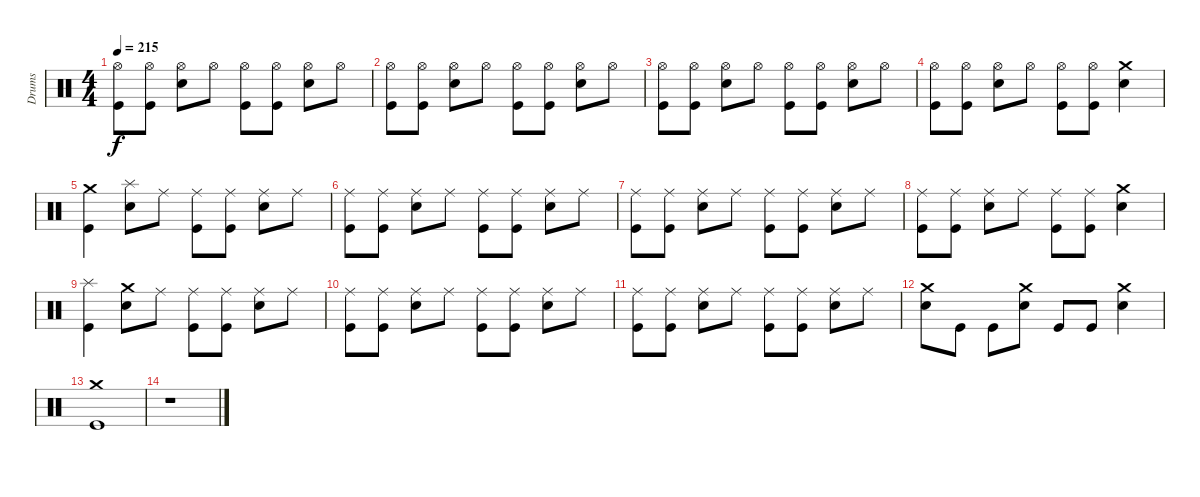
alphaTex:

\track ("Drums" "Drums") {instrument percussion}
\staff {score}
\articulation defaults
\ts (4 4)
\tempo 215
\clef neutral
\ks c
("Kick (hit)" "Hi-Hat (open)").8{dy f} ("Kick (hit)" "Hi-Hat (open)").8 ("Snare (hit) 2" "Hi-Hat (open)").8 "Hi-Hat (open)".8 ("Kick (hit)" "Hi-Hat (open)").8 ("Kick (hit)" "Hi-Hat (open)").8 ("Snare (hit) 2" "Hi-Hat (open)").8 "Hi-Hat (open)".8 |
("Kick (hit)" "Hi-Hat (open)").8 ("Kick (hit)" "Hi-Hat (open)").8 ("Snare (hit) 2" "Hi-Hat (open)").8 "Hi-Hat (open)".8 ("Kick (hit)" "Hi-Hat (open)").8 ("Kick (hit)" "Hi-Hat (open)").8 ("Snare (hit) 2" "Hi-Hat (open)").8 "Hi-Hat (open)".8 |
("Kick (hit)" "Hi-Hat (open)").8 ("Kick (hit)" "Hi-Hat (open)").8 ("Snare (hit) 2" "Hi-Hat (open)").8 "Hi-Hat (open)".8 ("Kick (hit)" "Hi-Hat (open)").8 ("Kick (hit)" "Hi-Hat (open)").8 ("Snare (hit) 2" "Hi-Hat (open)").8 "Hi-Hat (open)".8 |
("Kick (hit)" "Hi-Hat (open)").8 ("Kick (hit)" "Hi-Hat (open)").8 ("Snare (hit) 2" "Hi-Hat (open)").8 "Hi-Hat (open)".8 ("Kick (hit)" "Hi-Hat (open)").8 ("Kick (hit)" "Hi-Hat (open)").8 ("Snare (hit) 2" "Crash medium (hit)").4 |
("Kick (hit)" "Crash medium (hit)").4 ("Snare (hit) 2" "Splash (hit)").8 "Ride (middle)".8 ("Kick (hit)" "Ride (middle)").8 ("Kick (hit)" "Ride (middle)").8 ("Snare (hit) 2" "Ride (middle)").8 "Ride (middle)".8 |
("Kick (hit)" "Ride (middle)").8 ("Kick (hit)" "Ride (middle)").8 ("Snare (hit) 2" "Ride (middle)").8 "Ride (middle)".8 ("Kick (hit)" "Ride (middle)").8 ("Kick (hit)" "Ride (middle)").8 ("Snare (hit) 2" "Ride (middle)").8 "Ride (middle)".8 |
("Kick (hit)" "Ride (middle)").8 ("Kick (hit)" "Ride (middle)").8 ("Snare (hit) 2" "Ride (middle)").8 "Ride (middle)".8 ("Kick (hit)" "Ride (middle)").8 ("Kick (hit)" "Ride (middle)").8 ("Snare (hit) 2" "Ride (middle)").8 "Ride (middle)".8 |
("Kick (hit)" "Ride (middle)").8 ("Kick (hit)" "Ride (middle)").8 ("Snare (hit) 2" "Ride (middle)").8 "Ride (middle)".8 ("Kick (hit)" "Ride (middle)").8 ("Kick (hit)" "Ride (middle)").8 ("Snare (hit) 2" "Crash medium (hit)").4 |
("Kick (hit)" "Splash (hit)").4 ("Snare (hit) 2" "Crash medium (hit)").8 "Ride (middle)".8 ("Kick (hit)" "Ride (middle)").8 ("Kick (hit)" "Ride (middle)").8 ("Snare (hit) 2" "Ride (middle)").8 "Ride (middle)".8 |
("Kick (hit)" "Ride (middle)").8 ("Kick (hit)" "Ride (middle)").8 ("Snare (hit) 2" "Ride (middle)").8 "Ride (middle)".8 ("Kick (hit)" "Ride (middle)").8 ("Kick (hit)" "Ride (middle)").8 ("Snare (hit) 2" "Ride (middle)").8 "Ride (middle)".8 |
("Kick (hit)" "Ride (middle)").8 ("Kick (hit)" "Ride (middle)").8 ("Snare (hit) 2" "Ride (middle)").8 "Ride (middle)".8 ("Kick (hit)" "Ride (middle)").8 ("Kick (hit)" "Ride (middle)").8 ("Snare (hit) 2" "Ride (middle)").8 "Ride (middle)".8 |
("Snare (hit) 2" "Crash medium (hit)").8 "Kick (hit)".8 "Kick (hit)".8 ("Snare (hit) 2" "Crash medium (hit)").8 "Kick (hit)".8 "Kick (hit)".8 ("Snare (hit) 2" "Crash medium (hit)").4 |
("Kick (hit)" "Crash medium (hit)").1 |
r.1
